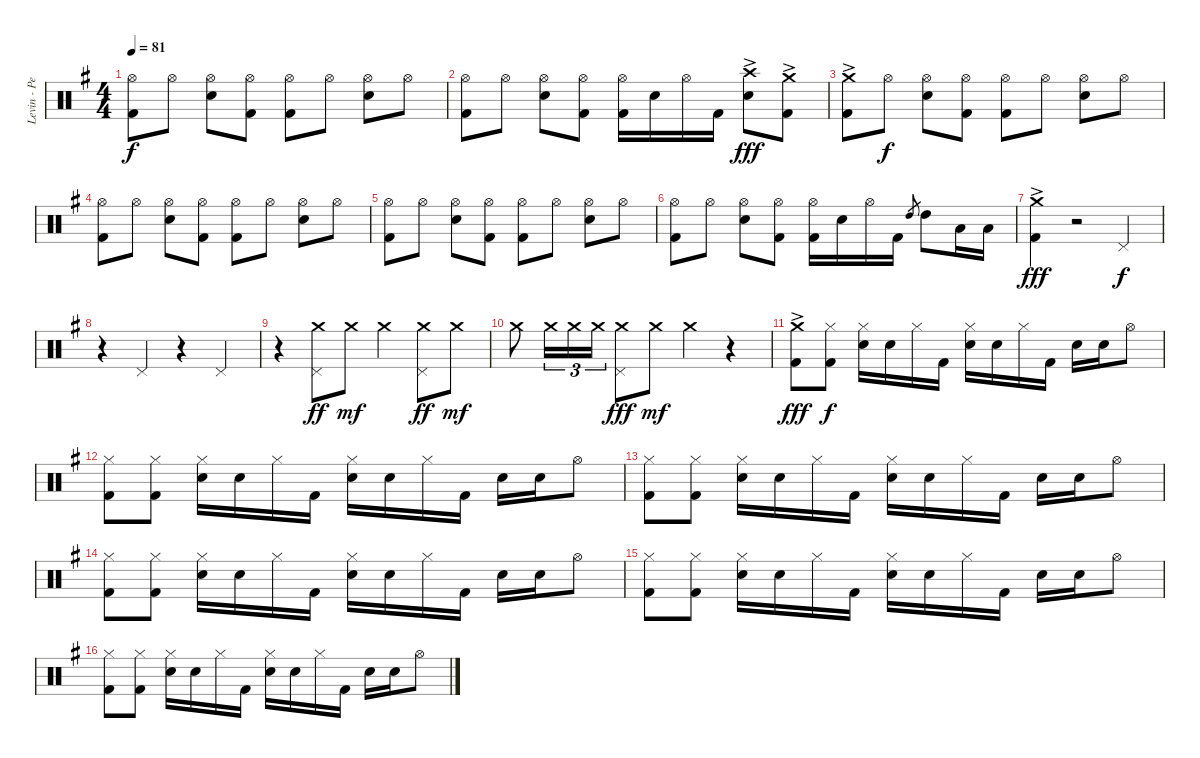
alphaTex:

\track ("Levin - Percussion" "Levin - Pe") {instrument percussion}
\staff {score}
\articulation defaults
\ts (4 4)
\tempo 81
\clef neutral
\ks g
("Hi-Hat (open)" "Kick (hit) 2").8{dy f} "Hi-Hat (open)".8 ("Hi-Hat (open)" "Electric Snare (hit)").8 ("Hi-Hat (open)" "Kick (hit) 2").8 ("Hi-Hat (open)" "Kick (hit) 2").8 "Hi-Hat (open)".8 ("Hi-Hat (open)" "Electric Snare (hit)").8 "Hi-Hat (open)".8 |
("Hi-Hat (open)" "Kick (hit) 2").8 "Hi-Hat (open)".8 ("Hi-Hat (open)" "Electric Snare (hit)").8 ("Hi-Hat (open)" "Kick (hit) 2").8 ("Hi-Hat (open)" "Kick (hit) 2").16 "Electric Snare (hit)".16 "Hi-Hat (open)".16 "Kick (hit) 2".16 ("Crash high (hit)"{ac} "Electric Snare (hit)").8{dy fff} ("Crash medium (hit)"{ac} "Kick (hit) 2"{ac}).8 |
("Crash medium (hit)"{ac} "Kick (hit) 2"{ac}).8 "Hi-Hat (open)".8{dy f} ("Hi-Hat (open)" "Electric Snare (hit)").8 ("Hi-Hat (open)" "Kick (hit) 2").8 ("Hi-Hat (open)" "Kick (hit) 2").8 "Hi-Hat (open)".8 ("Hi-Hat (open)" "Electric Snare (hit)").8 "Hi-Hat (open)".8 |
("Hi-Hat (open)" "Kick (hit) 2").8 "Hi-Hat (open)".8 ("Hi-Hat (open)" "Electric Snare (hit)").8 ("Hi-Hat (open)" "Kick (hit) 2").8 ("Hi-Hat (open)" "Kick (hit) 2").8 "Hi-Hat (open)".8 ("Hi-Hat (open)" "Electric Snare (hit)").8 "Hi-Hat (open)".8 |
("Hi-Hat (open)" "Kick (hit) 2").8 "Hi-Hat (open)".8 ("Hi-Hat (open)" "Electric Snare (hit)").8 ("Hi-Hat (open)" "Kick (hit) 2").8 ("Hi-Hat (open)" "Kick (hit) 2").8 "Hi-Hat (open)".8 ("Hi-Hat (open)" "Electric Snare (hit)").8 "Hi-Hat (open)".8 |
("Hi-Hat (open)" "Kick (hit) 2").8 "Hi-Hat (open)".8 ("Hi-Hat (open)" "Electric Snare (hit)").8 ("Hi-Hat (open)" "Kick (hit) 2").8 ("Hi-Hat (open)" "Kick (hit) 2").16 "Electric Snare (hit)".16 "Hi-Hat (open)".16 "Kick (hit) 2".16 "High Tom (hit)".8{gr} "High Tom (hit)".8 "Low Tom (hit)".16 "Low Tom (hit)".16 |
("Crash medium (hit)"{ac} "Kick (hit) 2").4{dy fff} r.2 "Pedal Hi-Hat (hit)".4{dy f} |
r.4 "Pedal Hi-Hat (hit)".4 r.4 "Pedal Hi-Hat (hit)".4 |
r.4 ("Crash medium (hit)" "Pedal Hi-Hat (hit)").8{dy ff} "Crash medium (hit)".8{dy mf} "Crash medium (hit)".4 ("Crash medium (hit)" "Pedal Hi-Hat (hit)").8{dy ff} "Crash medium (hit)".8{dy mf} |
"Crash medium (hit)".8 "Crash medium (hit)".16{tu (3 2)} "Crash medium (hit)".16{tu (3 2)} "Crash medium (hit)".16{tu (3 2)} ("Crash medium (hit)" "Pedal Hi-Hat (hit)").8{dy fff} "Crash medium (hit)".8{dy mf} "Crash medium (hit)".4 r.4 |
("Crash medium (hit)"{ac} "Kick (hit) 2").8{dy fff} ("Hi-Hat (closed)" "Kick (hit) 2").8{dy f} ("Hi-Hat (closed)" "Electric Snare (hit)").16 "Electric Snare (hit)".16 "Hi-Hat (closed)".16 "Kick (hit) 2".16 ("Hi-Hat (closed)" "Electric Snare (hit)").16 "Electric Snare (hit)".16 "Hi-Hat (closed)".16 "Kick (hit) 2".16 "Electric Snare (hit)".16 "Electric Snare (hit)".16 "Hi-Hat (open)".8 |
("Hi-Hat (closed)" "Kick (hit) 2").8 ("Hi-Hat (closed)" "Kick (hit) 2").8 ("Hi-Hat (closed)" "Electric Snare (hit)").16 "Electric Snare (hit)".16 "Hi-Hat (closed)".16 "Kick (hit) 2".16 ("Hi-Hat (closed)" "Electric Snare (hit)").16 "Electric Snare (hit)".16 "Hi-Hat (closed)".16 "Kick (hit) 2".16 "Electric Snare (hit)".16 "Electric Snare (hit)".16 "Hi-Hat (open)".8 |
("Hi-Hat (closed)" "Kick (hit) 2").8 ("Hi-Hat (closed)" "Kick (hit) 2").8 ("Hi-Hat (closed)" "Electric Snare (hit)").16 "Electric Snare (hit)".16 "Hi-Hat (closed)".16 "Kick (hit) 2".16 ("Hi-Hat (closed)" "Electric Snare (hit)").16 "Electric Snare (hit)".16 "Hi-Hat (closed)".16 "Kick (hit) 2".16 "Electric Snare (hit)".16 "Electric Snare (hit)".16 "Hi-Hat (open)".8 |
("Hi-Hat (closed)" "Kick (hit) 2").8 ("Hi-Hat (closed)" "Kick (hit) 2").8 ("Hi-Hat (closed)" "Electric Snare (hit)").16 "Electric Snare (hit)".16 "Hi-Hat (closed)".16 "Kick (hit) 2".16 ("Hi-Hat (closed)" "Electric Snare (hit)").16 "Electric Snare (hit)".16 "Hi-Hat (closed)".16 "Kick (hit) 2".16 "Electric Snare (hit)".16 "Electric Snare (hit)".16 "Hi-Hat (open)".8 |
("Hi-Hat (closed)" "Kick (hit) 2").8 ("Hi-Hat (closed)" "Kick (hit) 2").8 ("Hi-Hat (closed)" "Electric Snare (hit)").16 "Electric Snare (hit)".16 "Hi-Hat (closed)".16 "Kick (hit) 2".16 ("Hi-Hat (closed)" "Electric Snare (hit)").16 "Electric Snare (hit)".16 "Hi-Hat (closed)".16 "Kick (hit) 2".16 "Electric Snare (hit)".16 "Electric Snare (hit)".16 "Hi-Hat (open)".8 |
("Hi-Hat (closed)" "Kick (hit) 2").8 ("Hi-Hat (closed)" "Kick (hit) 2").8 ("Hi-Hat (closed)" "Electric Snare (hit)").16 "Electric Snare (hit)".16 "Hi-Hat (closed)".16 "Kick (hit) 2".16 ("Hi-Hat (closed)" "Electric Snare (hit)").16 "Electric Snare (hit)".16 "Hi-Hat (closed)".16 "Kick (hit) 2".16 "Electric Snare (hit)".16 "Electric Snare (hit)".16 "Hi-Hat (open)".8
